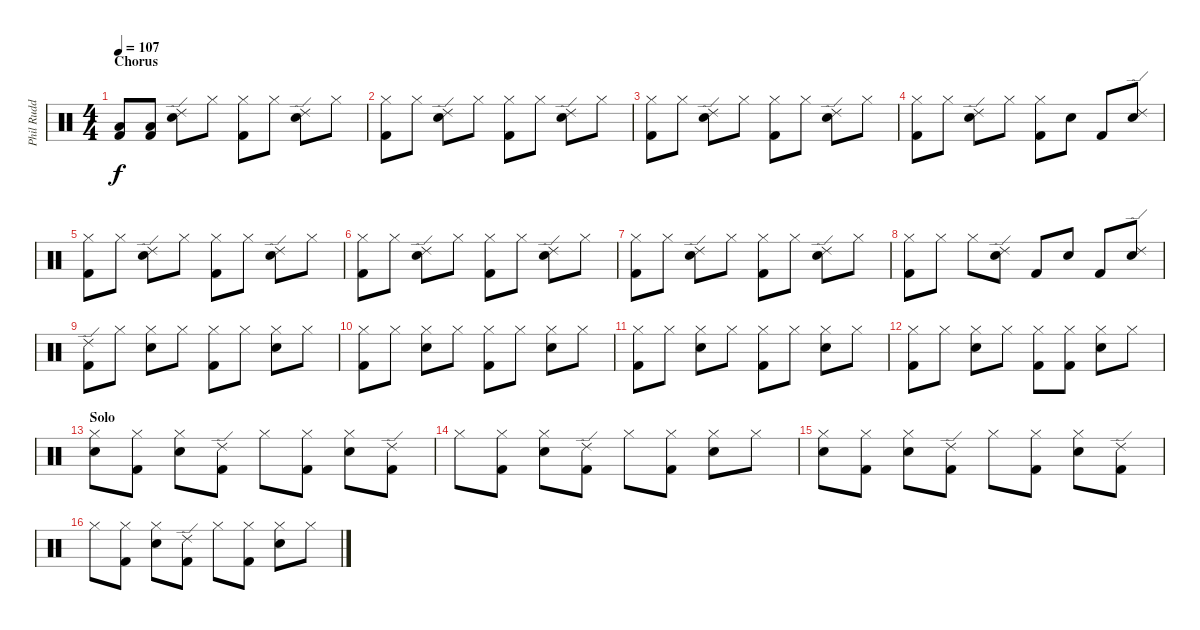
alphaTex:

\track ("Phil Rudd" "Phil Rudd") {instrument percussion}
\staff {score}
\articulation defaults
\ts (4 4)
\section ("" "Chorus")
\tempo 107
\clef neutral
\ks c
("Kick (hit) 2" "Low Floor Tom (hit)").8{dy f} ("Kick (hit) 2" "Low Floor Tom (hit)").8 ("Snare (hit) 2" "Ride (edge) 2").8 "Hi-Hat (closed)".8 ("Hi-Hat (closed)" "Kick (hit) 2").8 "Hi-Hat (closed)".8 ("Snare (hit) 2" "Ride (edge) 2").8 "Hi-Hat (closed)".8 |
("Hi-Hat (closed)" "Kick (hit) 2").8 "Hi-Hat (closed)".8 ("Snare (hit) 2" "Ride (edge) 2").8 "Hi-Hat (closed)".8 ("Hi-Hat (closed)" "Kick (hit) 2").8 "Hi-Hat (closed)".8 ("Snare (hit) 2" "Ride (edge) 2").8 "Hi-Hat (closed)".8 |
("Hi-Hat (closed)" "Kick (hit) 2").8 "Hi-Hat (closed)".8 ("Snare (hit) 2" "Ride (edge) 2").8 "Hi-Hat (closed)".8 ("Hi-Hat (closed)" "Kick (hit) 2").8 "Hi-Hat (closed)".8 ("Snare (hit) 2" "Ride (edge) 2").8 "Hi-Hat (closed)".8 |
("Hi-Hat (closed)" "Kick (hit) 2").8 "Hi-Hat (closed)".8 ("Snare (hit) 2" "Ride (edge) 2").8 "Hi-Hat (closed)".8 ("Hi-Hat (closed)" "Kick (hit) 2").8 "Snare (hit) 2".8 "Kick (hit) 2".8 ("Snare (hit) 2" "Ride (edge) 2").8 |
("Hi-Hat (closed)" "Kick (hit) 2").8 "Hi-Hat (closed)".8 ("Snare (hit) 2" "Ride (edge) 2").8 "Hi-Hat (closed)".8 ("Hi-Hat (closed)" "Kick (hit) 2").8 "Hi-Hat (closed)".8 ("Snare (hit) 2" "Ride (edge) 2").8 "Hi-Hat (closed)".8 |
("Hi-Hat (closed)" "Kick (hit) 2").8 "Hi-Hat (closed)".8 ("Snare (hit) 2" "Ride (edge) 2").8 "Hi-Hat (closed)".8 ("Hi-Hat (closed)" "Kick (hit) 2").8 "Hi-Hat (closed)".8 ("Snare (hit) 2" "Ride (edge) 2").8 "Hi-Hat (closed)".8 |
("Hi-Hat (closed)" "Kick (hit) 2").8 "Hi-Hat (closed)".8 ("Snare (hit) 2" "Ride (edge) 2").8 "Hi-Hat (closed)".8 ("Hi-Hat (closed)" "Kick (hit) 2").8 "Hi-Hat (closed)".8 ("Snare (hit) 2" "Ride (edge) 2").8 "Hi-Hat (closed)".8 |
("Hi-Hat (closed)" "Kick (hit) 2").8 "Hi-Hat (closed)".8 "Hi-Hat (closed)".8 ("Snare (hit) 2" "Ride (edge) 2").8 "Kick (hit) 2".8 "Snare (hit) 2".8 "Kick (hit) 2".8 ("Snare (hit) 2" "Ride (edge) 2").8 |
("Kick (hit) 2" "Ride (edge) 2").8 "Hi-Hat (closed)".8 ("Hi-Hat (closed)" "Snare (hit) 2").8 "Hi-Hat (closed)".8 ("Hi-Hat (closed)" "Kick (hit) 2").8 "Hi-Hat (closed)".8 ("Hi-Hat (closed)" "Snare (hit) 2").8 "Hi-Hat (closed)".8 |
("Hi-Hat (closed)" "Kick (hit) 2").8 "Hi-Hat (closed)".8 ("Hi-Hat (closed)" "Snare (hit) 2").8 "Hi-Hat (closed)".8 ("Hi-Hat (closed)" "Kick (hit) 2").8 "Hi-Hat (closed)".8 ("Hi-Hat (closed)" "Snare (hit) 2").8 "Hi-Hat (closed)".8 |
("Hi-Hat (closed)" "Kick (hit) 2").8 "Hi-Hat (closed)".8 ("Hi-Hat (closed)" "Snare (hit) 2").8 "Hi-Hat (closed)".8 ("Hi-Hat (closed)" "Kick (hit) 2").8 "Hi-Hat (closed)".8 ("Hi-Hat (closed)" "Snare (hit) 2").8 "Hi-Hat (closed)".8 |
("Hi-Hat (closed)" "Kick (hit) 2").8 "Hi-Hat (closed)".8 ("Hi-Hat (closed)" "Snare (hit) 2").8 "Hi-Hat (closed)".8 ("Hi-Hat (closed)" "Kick (hit) 2").8 ("Hi-Hat (closed)" "Kick (hit) 2").8 ("Hi-Hat (closed)" "Snare (hit) 2").8 "Hi-Hat (closed)".8 |
\section ("" "Solo")
("Hi-Hat (closed)" "Snare (hit) 2").8 ("Hi-Hat (closed)" "Kick (hit) 2").8 ("Hi-Hat (closed)" "Snare (hit) 2").8 ("Kick (hit) 2" "Ride (edge) 2").8 "Hi-Hat (closed)".8 ("Hi-Hat (closed)" "Kick (hit) 2").8 ("Hi-Hat (closed)" "Snare (hit) 2").8 ("Kick (hit) 2" "Ride (edge) 2").8 |
"Hi-Hat (closed)".8 ("Hi-Hat (closed)" "Kick (hit) 2").8 ("Hi-Hat (closed)" "Snare (hit) 2").8 ("Kick (hit) 2" "Ride (edge) 2").8 "Hi-Hat (closed)".8 ("Hi-Hat (closed)" "Kick (hit) 2").8 ("Hi-Hat (closed)" "Snare (hit) 2").8 "Hi-Hat (closed)".8 |
("Hi-Hat (closed)" "Snare (hit) 2").8 ("Hi-Hat (closed)" "Kick (hit) 2").8 ("Hi-Hat (closed)" "Snare (hit) 2").8 ("Kick (hit) 2" "Ride (edge) 2").8 "Hi-Hat (closed)".8 ("Hi-Hat (closed)" "Kick (hit) 2").8 ("Hi-Hat (closed)" "Snare (hit) 2").8 ("Kick (hit) 2" "Ride (edge) 2").8 |
"Hi-Hat (closed)".8 ("Hi-Hat (closed)" "Kick (hit) 2").8 ("Hi-Hat (closed)" "Snare (hit) 2").8 ("Kick (hit) 2" "Ride (edge) 2").8 "Hi-Hat (closed)".8 ("Hi-Hat (closed)" "Kick (hit) 2").8 ("Hi-Hat (closed)" "Snare (hit) 2").8 "Hi-Hat (closed)".8
